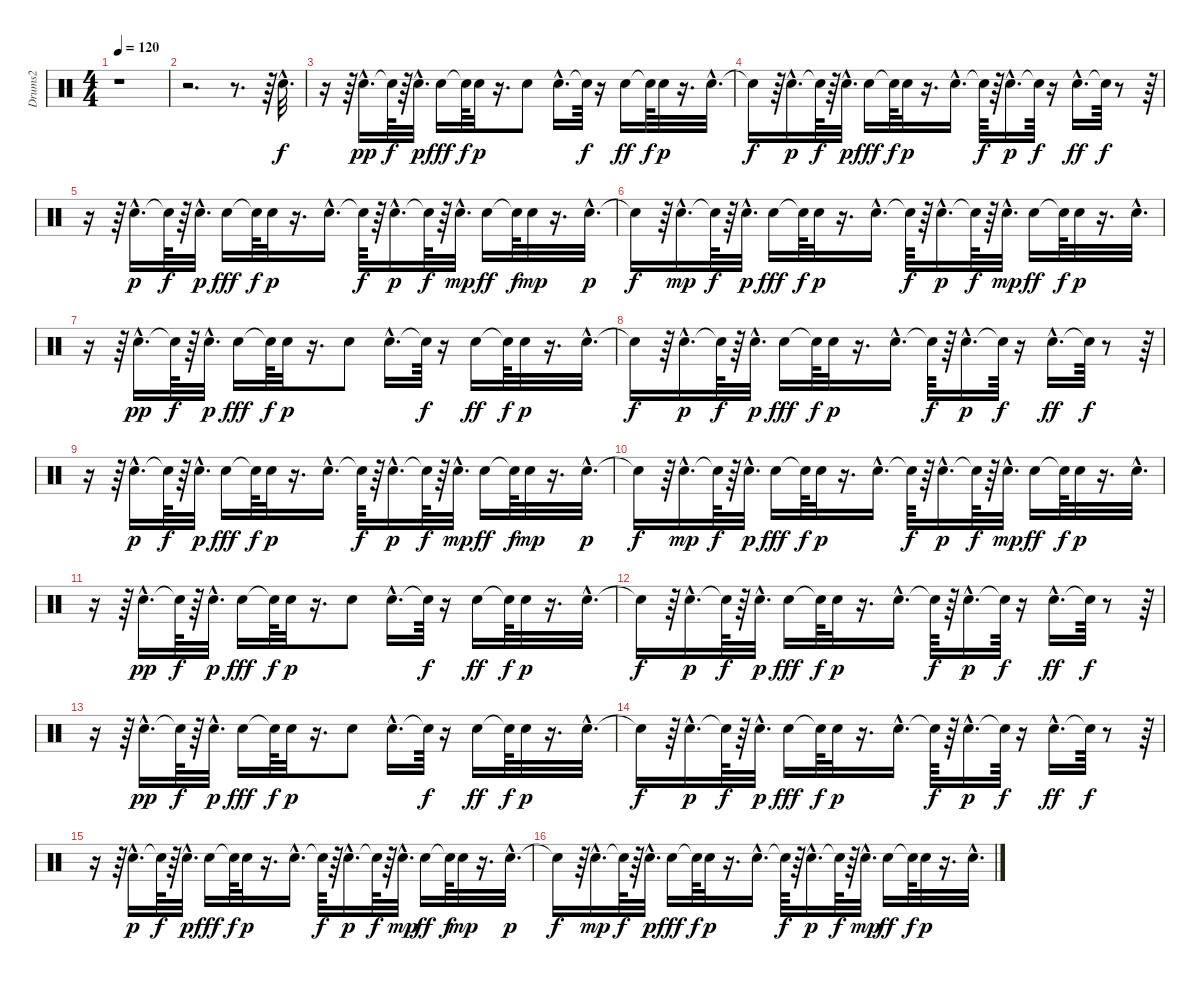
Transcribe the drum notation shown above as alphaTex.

\track ("Drums2" "Drums2") {instrument percussion}
\staff {score}
\articulation defaults
\ts (4 4)
\tempo 120
\clef neutral
\ks c
r.1{dy f} |
r.2{d} r.8{d} r.64 "Electric Snare (hit)"{hac}.32{d} |
r.16 r.64 "Electric Snare (hit)"{hac}.16{d dy pp} "Snare (hit)"{t}.64{dy f} r.64 "Electric Snare (hit)"{hac}.32{d dy p} "Electric Snare (hit)".16{dy fff} "Snare (hit)"{t}.64{dy f} "Electric Snare (hit)".32{dy p} r.16{d} "Electric Snare (hit)".8 "Electric Snare (hit)"{hac}.16{d} "Snare (hit)"{t}.64{dy f} r.16 "Electric Snare (hit)".16{dy ff} "Snare (hit)"{t}.64{dy f} "Electric Snare (hit)".32{dy p} r.16{d} "Electric Snare (hit)"{hac}.32{d} |
"Snare (hit)"{t}.16{dy f} r.64 "Electric Snare (hit)"{hac}.16{d dy p} "Snare (hit)"{t}.64{dy f} r.64 "Electric Snare (hit)"{hac}.32{d dy p} "Electric Snare (hit)".16{dy fff} "Snare (hit)"{t}.64{dy f} "Electric Snare (hit)".32{dy p} r.16{d} "Electric Snare (hit)"{hac}.16{d} "Snare (hit)"{t}.64{dy f} r.64 "Electric Snare (hit)"{hac}.16{d dy p} "Snare (hit)"{t}.64{dy f} r.16 "Electric Snare (hit)"{hac}.16{d dy ff} "Snare (hit)"{t}.64{dy f} r.8 r.64 |
r.16 r.64 "Electric Snare (hit)"{hac}.16{d dy p} "Snare (hit)"{t}.64{dy f} r.64 "Electric Snare (hit)"{hac}.32{d dy p} "Electric Snare (hit)".16{dy fff} "Snare (hit)"{t}.64{dy f} "Electric Snare (hit)".32{dy p} r.16{d} "Electric Snare (hit)"{hac}.16{d} "Snare (hit)"{t}.64{dy f} r.64 "Electric Snare (hit)"{hac}.16{d dy p} "Snare (hit)"{t}.64{dy f} r.64 "Electric Snare (hit)"{hac}.32{d dy mp} "Electric Snare (hit)".16{dy ff} "Snare (hit)"{t}.64{dy f} "Electric Snare (hit)".32{dy mp} r.16{d} "Electric Snare (hit)"{hac}.32{d dy p} |
"Snare (hit)"{t}.16{dy f} r.64 "Electric Snare (hit)"{hac}.16{d dy mp} "Snare (hit)"{t}.64{dy f} r.64 "Electric Snare (hit)"{hac}.32{d dy p} "Electric Snare (hit)".16{dy fff} "Snare (hit)"{t}.64{dy f} "Electric Snare (hit)".32{dy p} r.16{d} "Electric Snare (hit)"{hac}.16{d} "Snare (hit)"{t}.64{dy f} r.64 "Electric Snare (hit)"{hac}.16{d dy p} "Snare (hit)"{t}.64{dy f} r.64 "Electric Snare (hit)"{hac}.32{d dy mp} "Electric Snare (hit)".16{dy ff} "Snare (hit)"{t}.64{dy f} "Electric Snare (hit)".32{dy p} r.16{d} "Electric Snare (hit)"{hac}.32{d} |
r.16 r.64 "Electric Snare (hit)"{hac}.16{d dy pp} "Snare (hit)"{t}.64{dy f} r.64 "Electric Snare (hit)"{hac}.32{d dy p} "Electric Snare (hit)".16{dy fff} "Snare (hit)"{t}.64{dy f} "Electric Snare (hit)".32{dy p} r.16{d} "Electric Snare (hit)".8 "Electric Snare (hit)"{hac}.16{d} "Snare (hit)"{t}.64{dy f} r.16 "Electric Snare (hit)".16{dy ff} "Snare (hit)"{t}.64{dy f} "Electric Snare (hit)".32{dy p} r.16{d} "Electric Snare (hit)"{hac}.32{d} |
"Snare (hit)"{t}.16{dy f} r.64 "Electric Snare (hit)"{hac}.16{d dy p} "Snare (hit)"{t}.64{dy f} r.64 "Electric Snare (hit)"{hac}.32{d dy p} "Electric Snare (hit)".16{dy fff} "Snare (hit)"{t}.64{dy f} "Electric Snare (hit)".32{dy p} r.16{d} "Electric Snare (hit)"{hac}.16{d} "Snare (hit)"{t}.64{dy f} r.64 "Electric Snare (hit)"{hac}.16{d dy p} "Snare (hit)"{t}.64{dy f} r.16 "Electric Snare (hit)"{hac}.16{d dy ff} "Snare (hit)"{t}.64{dy f} r.8 r.64 |
r.16 r.64 "Electric Snare (hit)"{hac}.16{d dy p} "Snare (hit)"{t}.64{dy f} r.64 "Electric Snare (hit)"{hac}.32{d dy p} "Electric Snare (hit)".16{dy fff} "Snare (hit)"{t}.64{dy f} "Electric Snare (hit)".32{dy p} r.16{d} "Electric Snare (hit)"{hac}.16{d} "Snare (hit)"{t}.64{dy f} r.64 "Electric Snare (hit)"{hac}.16{d dy p} "Snare (hit)"{t}.64{dy f} r.64 "Electric Snare (hit)"{hac}.32{d dy mp} "Electric Snare (hit)".16{dy ff} "Snare (hit)"{t}.64{dy f} "Electric Snare (hit)".32{dy mp} r.16{d} "Electric Snare (hit)"{hac}.32{d dy p} |
"Snare (hit)"{t}.16{dy f} r.64 "Electric Snare (hit)"{hac}.16{d dy mp} "Snare (hit)"{t}.64{dy f} r.64 "Electric Snare (hit)"{hac}.32{d dy p} "Electric Snare (hit)".16{dy fff} "Snare (hit)"{t}.64{dy f} "Electric Snare (hit)".32{dy p} r.16{d} "Electric Snare (hit)"{hac}.16{d} "Snare (hit)"{t}.64{dy f} r.64 "Electric Snare (hit)"{hac}.16{d dy p} "Snare (hit)"{t}.64{dy f} r.64 "Electric Snare (hit)"{hac}.32{d dy mp} "Electric Snare (hit)".16{dy ff} "Snare (hit)"{t}.64{dy f} "Electric Snare (hit)".32{dy p} r.16{d} "Electric Snare (hit)"{hac}.32{d} |
r.16 r.64 "Electric Snare (hit)"{hac}.16{d dy pp} "Snare (hit)"{t}.64{dy f} r.64 "Electric Snare (hit)"{hac}.32{d dy p} "Electric Snare (hit)".16{dy fff} "Snare (hit)"{t}.64{dy f} "Electric Snare (hit)".32{dy p} r.16{d} "Electric Snare (hit)".8 "Electric Snare (hit)"{hac}.16{d} "Snare (hit)"{t}.64{dy f} r.16 "Electric Snare (hit)".16{dy ff} "Snare (hit)"{t}.64{dy f} "Electric Snare (hit)".32{dy p} r.16{d} "Electric Snare (hit)"{hac}.32{d} |
"Snare (hit)"{t}.16{dy f} r.64 "Electric Snare (hit)"{hac}.16{d dy p} "Snare (hit)"{t}.64{dy f} r.64 "Electric Snare (hit)"{hac}.32{d dy p} "Electric Snare (hit)".16{dy fff} "Snare (hit)"{t}.64{dy f} "Electric Snare (hit)".32{dy p} r.16{d} "Electric Snare (hit)"{hac}.16{d} "Snare (hit)"{t}.64{dy f} r.64 "Electric Snare (hit)"{hac}.16{d dy p} "Snare (hit)"{t}.64{dy f} r.16 "Electric Snare (hit)"{hac}.16{d dy ff} "Snare (hit)"{t}.64{dy f} r.8 r.64 |
r.16 r.64 "Electric Snare (hit)"{hac}.16{d dy pp} "Snare (hit)"{t}.64{dy f} r.64 "Electric Snare (hit)"{hac}.32{d dy p} "Electric Snare (hit)".16{dy fff} "Snare (hit)"{t}.64{dy f} "Electric Snare (hit)".32{dy p} r.16{d} "Electric Snare (hit)".8 "Electric Snare (hit)"{hac}.16{d} "Snare (hit)"{t}.64{dy f} r.16 "Electric Snare (hit)".16{dy ff} "Snare (hit)"{t}.64{dy f} "Electric Snare (hit)".32{dy p} r.16{d} "Electric Snare (hit)"{hac}.32{d} |
"Snare (hit)"{t}.16{dy f} r.64 "Electric Snare (hit)"{hac}.16{d dy p} "Snare (hit)"{t}.64{dy f} r.64 "Electric Snare (hit)"{hac}.32{d dy p} "Electric Snare (hit)".16{dy fff} "Snare (hit)"{t}.64{dy f} "Electric Snare (hit)".32{dy p} r.16{d} "Electric Snare (hit)"{hac}.16{d} "Snare (hit)"{t}.64{dy f} r.64 "Electric Snare (hit)"{hac}.16{d dy p} "Snare (hit)"{t}.64{dy f} r.16 "Electric Snare (hit)"{hac}.16{d dy ff} "Snare (hit)"{t}.64{dy f} r.8 r.64 |
r.16 r.64 "Electric Snare (hit)"{hac}.16{d dy p} "Snare (hit)"{t}.64{dy f} r.64 "Electric Snare (hit)"{hac}.32{d dy p} "Electric Snare (hit)".16{dy fff} "Snare (hit)"{t}.64{dy f} "Electric Snare (hit)".32{dy p} r.16{d} "Electric Snare (hit)"{hac}.16{d} "Snare (hit)"{t}.64{dy f} r.64 "Electric Snare (hit)"{hac}.16{d dy p} "Snare (hit)"{t}.64{dy f} r.64 "Electric Snare (hit)"{hac}.32{d dy mp} "Electric Snare (hit)".16{dy ff} "Snare (hit)"{t}.64{dy f} "Electric Snare (hit)".32{dy mp} r.16{d} "Electric Snare (hit)"{hac}.32{d dy p} |
"Snare (hit)"{t}.16{dy f} r.64 "Electric Snare (hit)"{hac}.16{d dy mp} "Snare (hit)"{t}.64{dy f} r.64 "Electric Snare (hit)"{hac}.32{d dy p} "Electric Snare (hit)".16{dy fff} "Snare (hit)"{t}.64{dy f} "Electric Snare (hit)".32{dy p} r.16{d} "Electric Snare (hit)"{hac}.16{d} "Snare (hit)"{t}.64{dy f} r.64 "Electric Snare (hit)"{hac}.16{d dy p} "Snare (hit)"{t}.64{dy f} r.64 "Electric Snare (hit)"{hac}.32{d dy mp} "Electric Snare (hit)".16{dy ff} "Snare (hit)"{t}.64{dy f} "Electric Snare (hit)".32{dy p} r.16{d} "Electric Snare (hit)"{hac}.32{d}
